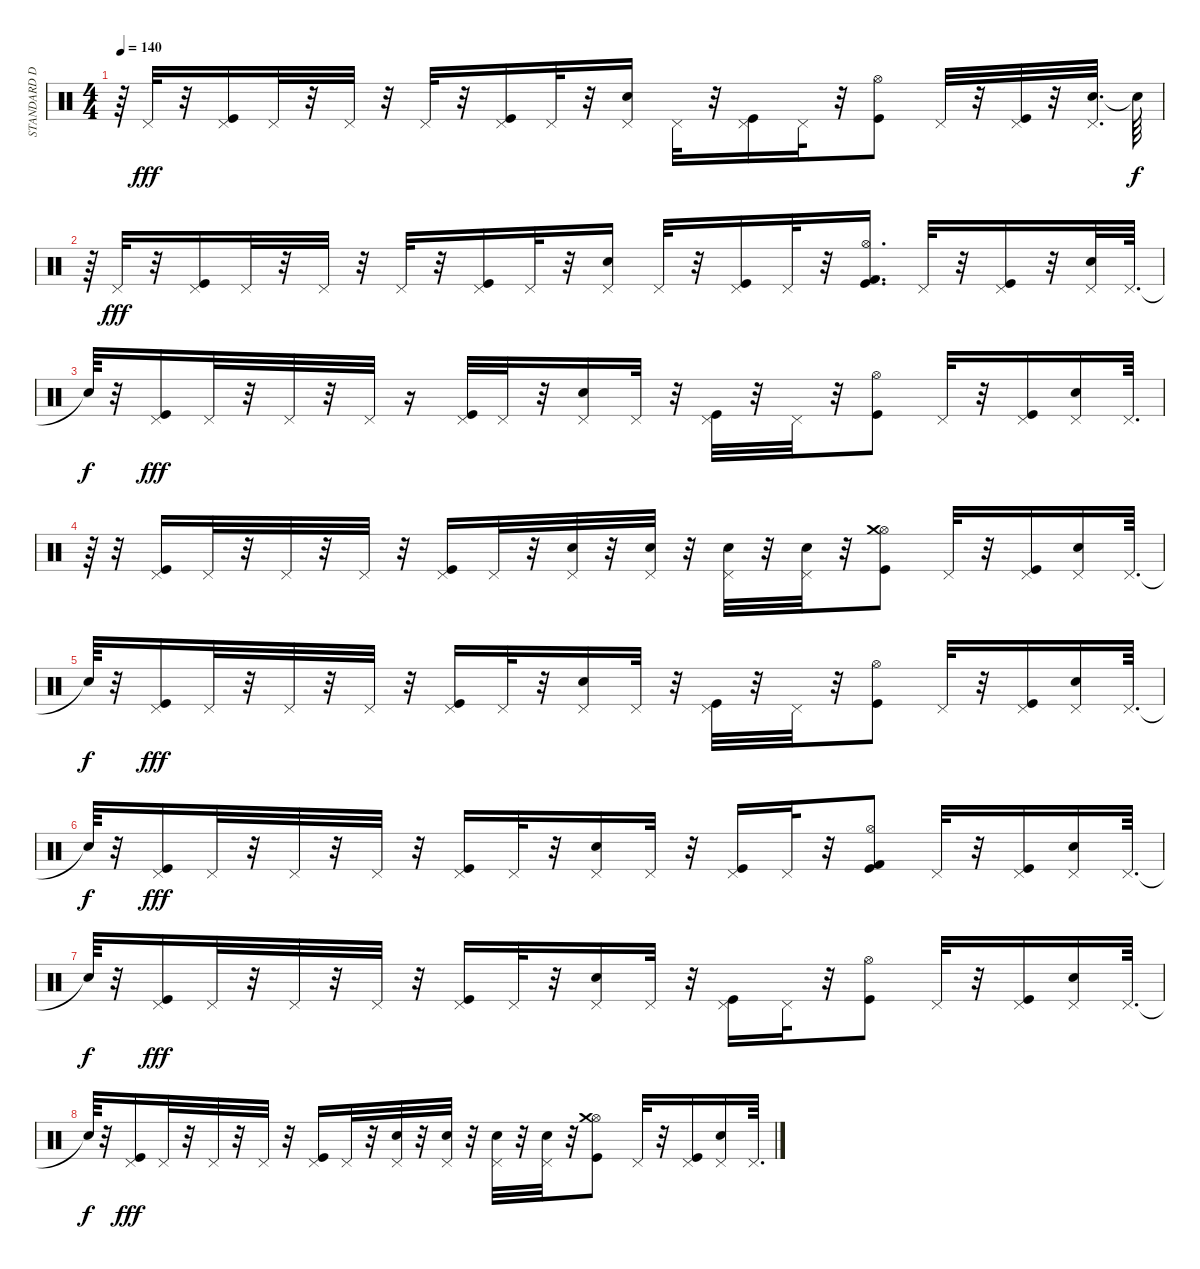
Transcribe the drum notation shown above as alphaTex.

\track ("STANDARD DRUMS" "STANDARD D") {instrument percussion}
\staff {score}
\articulation defaults
\ts (4 4)
\tempo 140
\clef neutral
\ks c
r.64{dy f} "Pedal Hi-Hat (hit)".32{dy fff} r.32 ("Kick (hit)" "Pedal Hi-Hat (hit)").16 "Pedal Hi-Hat (hit)".32 r.32 "Pedal Hi-Hat (hit)".32 r.32 "Pedal Hi-Hat (hit)".32 r.32 ("Kick (hit)" "Pedal Hi-Hat (hit)").16 "Pedal Hi-Hat (hit)".32 r.32 ("Snare (hit) 2" "Pedal Hi-Hat (hit)").16 "Pedal Hi-Hat (hit)".32 r.32 ("Kick (hit)" "Pedal Hi-Hat (hit)").16 "Pedal Hi-Hat (hit)".32 r.32 ("Kick (hit)" "Hi-Hat (open)").8 "Pedal Hi-Hat (hit)".32 r.32 ("Kick (hit)" "Pedal Hi-Hat (hit)").32 r.32 ("Snare (hit) 2" "Pedal Hi-Hat (hit)").32{d} "Snare (hit)"{t}.64{dy f} |
r.64 "Pedal Hi-Hat (hit)".32{dy fff} r.32 ("Kick (hit)" "Pedal Hi-Hat (hit)").16 "Pedal Hi-Hat (hit)".32 r.32 "Pedal Hi-Hat (hit)".32 r.32 "Pedal Hi-Hat (hit)".32 r.32 ("Kick (hit)" "Pedal Hi-Hat (hit)").16 "Pedal Hi-Hat (hit)".32 r.32 ("Snare (hit) 2" "Pedal Hi-Hat (hit)").16 "Pedal Hi-Hat (hit)".32 r.32 ("Kick (hit)" "Pedal Hi-Hat (hit)").16 "Pedal Hi-Hat (hit)".32 r.32 ("Kick (hit)" "Kick (hit) 2" "Hi-Hat (open)").16{d} "Pedal Hi-Hat (hit)".32 r.32 ("Kick (hit)" "Pedal Hi-Hat (hit)").16 r.32 ("Snare (hit) 2" "Pedal Hi-Hat (hit)").32 "Pedal Hi-Hat (hit)".64{d} |
"Snare (hit)"{t}.64{dy f} r.32 ("Kick (hit)" "Pedal Hi-Hat (hit)").16{dy fff} "Pedal Hi-Hat (hit)".32 r.32 "Pedal Hi-Hat (hit)".32 r.32 "Pedal Hi-Hat (hit)".32 r.16 ("Kick (hit)" "Pedal Hi-Hat (hit)").32 "Pedal Hi-Hat (hit)".32 r.32 ("Snare (hit) 2" "Pedal Hi-Hat (hit)").16 "Pedal Hi-Hat (hit)".32 r.32 ("Kick (hit)" "Pedal Hi-Hat (hit)").32 r.32 "Pedal Hi-Hat (hit)".32 r.32 ("Kick (hit)" "Hi-Hat (open)").8 "Pedal Hi-Hat (hit)".32 r.32 ("Kick (hit)" "Pedal Hi-Hat (hit)").16 ("Snare (hit) 2" "Pedal Hi-Hat (hit)").16 "Pedal Hi-Hat (hit)".64{d} |
r.64 r.32 ("Kick (hit)" "Pedal Hi-Hat (hit)").16 "Pedal Hi-Hat (hit)".32 r.32 "Pedal Hi-Hat (hit)".32 r.32 "Pedal Hi-Hat (hit)".32 r.32 ("Kick (hit)" "Pedal Hi-Hat (hit)").16 "Pedal Hi-Hat (hit)".32 r.32 ("Snare (hit) 2" "Pedal Hi-Hat (hit)").32 r.32 ("Snare (hit) 2" "Pedal Hi-Hat (hit)").32 r.32 ("Snare (hit) 2" "Pedal Hi-Hat (hit)").32 r.32 ("Snare (hit) 2" "Pedal Hi-Hat (hit)").32 r.32 ("Kick (hit)" "Hi-Hat (open)" "Crash medium (hit)").8 "Pedal Hi-Hat (hit)".32 r.32 ("Kick (hit)" "Pedal Hi-Hat (hit)").16 ("Snare (hit) 2" "Pedal Hi-Hat (hit)").16 "Pedal Hi-Hat (hit)".64{d} |
"Snare (hit)"{t}.64{dy f} r.32 ("Kick (hit)" "Pedal Hi-Hat (hit)").16{dy fff} "Pedal Hi-Hat (hit)".32 r.32 "Pedal Hi-Hat (hit)".32 r.32 "Pedal Hi-Hat (hit)".32 r.32 ("Kick (hit)" "Pedal Hi-Hat (hit)").16 "Pedal Hi-Hat (hit)".32 r.32 ("Snare (hit) 2" "Pedal Hi-Hat (hit)").16 "Pedal Hi-Hat (hit)".32 r.32 ("Kick (hit)" "Pedal Hi-Hat (hit)").32 r.32 "Pedal Hi-Hat (hit)".32 r.32 ("Kick (hit)" "Hi-Hat (open)").8 "Pedal Hi-Hat (hit)".32 r.32 ("Kick (hit)" "Pedal Hi-Hat (hit)").16 ("Snare (hit) 2" "Pedal Hi-Hat (hit)").16 "Pedal Hi-Hat (hit)".64{d} |
"Snare (hit)"{t}.64{dy f} r.32 ("Kick (hit)" "Pedal Hi-Hat (hit)").16{dy fff} "Pedal Hi-Hat (hit)".32 r.32 "Pedal Hi-Hat (hit)".32 r.32 "Pedal Hi-Hat (hit)".32 r.32 ("Kick (hit)" "Pedal Hi-Hat (hit)").16 "Pedal Hi-Hat (hit)".32 r.32 ("Snare (hit) 2" "Pedal Hi-Hat (hit)").16 "Pedal Hi-Hat (hit)".32 r.32 ("Kick (hit)" "Pedal Hi-Hat (hit)").16 "Pedal Hi-Hat (hit)".32 r.32 ("Kick (hit)" "Kick (hit) 2" "Hi-Hat (open)").8 "Pedal Hi-Hat (hit)".32 r.32 ("Kick (hit)" "Pedal Hi-Hat (hit)").16 ("Snare (hit) 2" "Pedal Hi-Hat (hit)").16 "Pedal Hi-Hat (hit)".64{d} |
"Snare (hit)"{t}.64{dy f} r.32 ("Kick (hit)" "Pedal Hi-Hat (hit)").16{dy fff} "Pedal Hi-Hat (hit)".32 r.32 "Pedal Hi-Hat (hit)".32 r.32 "Pedal Hi-Hat (hit)".32 r.32 ("Kick (hit)" "Pedal Hi-Hat (hit)").16 "Pedal Hi-Hat (hit)".32 r.32 ("Snare (hit) 2" "Pedal Hi-Hat (hit)").16 "Pedal Hi-Hat (hit)".32 r.32 ("Kick (hit)" "Pedal Hi-Hat (hit)").16 "Pedal Hi-Hat (hit)".32 r.32 ("Kick (hit)" "Hi-Hat (open)").8 "Pedal Hi-Hat (hit)".32 r.32 ("Kick (hit)" "Pedal Hi-Hat (hit)").16 ("Snare (hit) 2" "Pedal Hi-Hat (hit)").16 "Pedal Hi-Hat (hit)".64{d} |
"Snare (hit)"{t}.64{dy f} r.32 ("Kick (hit)" "Pedal Hi-Hat (hit)").16{dy fff} "Pedal Hi-Hat (hit)".32 r.32 "Pedal Hi-Hat (hit)".32 r.32 "Pedal Hi-Hat (hit)".32 r.32 ("Kick (hit)" "Pedal Hi-Hat (hit)").16 "Pedal Hi-Hat (hit)".32 r.32 ("Snare (hit) 2" "Pedal Hi-Hat (hit)").32 r.32 ("Snare (hit) 2" "Pedal Hi-Hat (hit)").32 r.32 ("Snare (hit) 2" "Pedal Hi-Hat (hit)").32 r.32 ("Snare (hit) 2" "Pedal Hi-Hat (hit)").32 r.32 ("Kick (hit)" "Hi-Hat (open)" "Crash medium (hit)").8 "Pedal Hi-Hat (hit)".32 r.32 ("Kick (hit)" "Pedal Hi-Hat (hit)").16 ("Snare (hit) 2" "Pedal Hi-Hat (hit)").16 "Pedal Hi-Hat (hit)".64{d}
